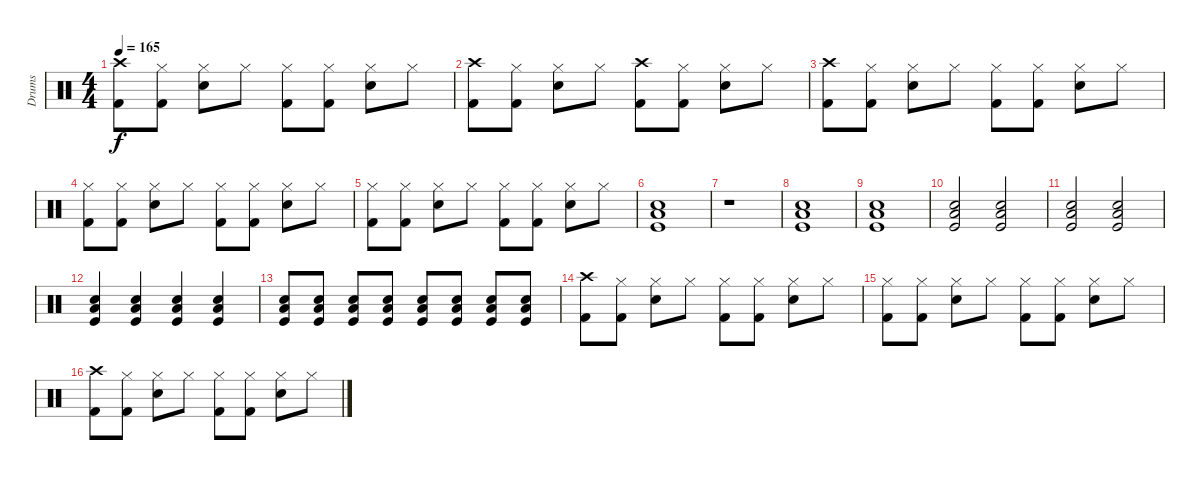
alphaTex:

\track ("Drums" "Drums") {instrument percussion}
\staff {score}
\articulation defaults
\ts (4 4)
\tempo 165
\clef neutral
\ks c
("Crash high (hit)" "Kick (hit) 2").8{dy f} ("Hi-Hat (closed)" "Kick (hit) 2").8 ("Hi-Hat (closed)" "Snare (hit) 2").8 "Hi-Hat (closed)".8 ("Hi-Hat (closed)" "Kick (hit) 2").8 ("Hi-Hat (closed)" "Kick (hit) 2").8 ("Hi-Hat (closed)" "Snare (hit) 2").8 "Hi-Hat (closed)".8 |
("Crash high (hit)" "Kick (hit) 2").8 ("Hi-Hat (closed)" "Kick (hit) 2").8 ("Hi-Hat (closed)" "Snare (hit) 2").8 "Hi-Hat (closed)".8 ("Crash high (hit)" "Kick (hit) 2").8 ("Hi-Hat (closed)" "Kick (hit) 2").8 ("Hi-Hat (closed)" "Snare (hit) 2").8 "Hi-Hat (closed)".8 |
("Crash high (hit)" "Kick (hit) 2").8 ("Hi-Hat (closed)" "Kick (hit) 2").8 ("Hi-Hat (closed)" "Snare (hit) 2").8 "Hi-Hat (closed)".8 ("Hi-Hat (closed)" "Kick (hit) 2").8 ("Hi-Hat (closed)" "Kick (hit) 2").8 ("Hi-Hat (closed)" "Snare (hit) 2").8 "Hi-Hat (closed)".8 |
("Hi-Hat (closed)" "Kick (hit) 2").8 ("Hi-Hat (closed)" "Kick (hit) 2").8 ("Hi-Hat (closed)" "Snare (hit) 2").8 "Hi-Hat (closed)".8 ("Hi-Hat (closed)" "Kick (hit) 2").8 ("Hi-Hat (closed)" "Kick (hit) 2").8 ("Hi-Hat (closed)" "Snare (hit) 2").8 "Hi-Hat (closed)".8 |
("Hi-Hat (closed)" "Kick (hit) 2").8 ("Hi-Hat (closed)" "Kick (hit) 2").8 ("Hi-Hat (closed)" "Snare (hit) 2").8 "Hi-Hat (closed)".8 ("Hi-Hat (closed)" "Kick (hit) 2").8 ("Hi-Hat (closed)" "Kick (hit) 2").8 ("Hi-Hat (closed)" "Snare (hit) 2").8 "Hi-Hat (closed)".8 |
("Snare (hit) 2" "Low Floor Tom (hit)" "Kick (hit)").1 |
r.1 |
("Snare (hit) 2" "Low Floor Tom (hit)" "Kick (hit)").1 |
("Snare (hit) 2" "Low Floor Tom (hit)" "Kick (hit)").1 |
("Snare (hit) 2" "Low Floor Tom (hit)" "Kick (hit)").2 ("Snare (hit) 2" "Low Floor Tom (hit)" "Kick (hit)").2 |
("Snare (hit) 2" "Low Floor Tom (hit)" "Kick (hit)").2 ("Snare (hit) 2" "Low Floor Tom (hit)" "Kick (hit)").2 |
("Snare (hit) 2" "Low Floor Tom (hit)" "Kick (hit)").4 ("Snare (hit) 2" "Low Floor Tom (hit)" "Kick (hit)").4 ("Snare (hit) 2" "Low Floor Tom (hit)" "Kick (hit)").4 ("Snare (hit) 2" "Low Floor Tom (hit)" "Kick (hit)").4 |
("Snare (hit) 2" "Low Floor Tom (hit)" "Kick (hit)").8 ("Snare (hit) 2" "Low Floor Tom (hit)" "Kick (hit)").8 ("Snare (hit) 2" "Low Floor Tom (hit)" "Kick (hit)").8 ("Snare (hit) 2" "Low Floor Tom (hit)" "Kick (hit)").8 ("Snare (hit) 2" "Low Floor Tom (hit)" "Kick (hit)").8 ("Snare (hit) 2" "Low Floor Tom (hit)" "Kick (hit)").8 ("Snare (hit) 2" "Low Floor Tom (hit)" "Kick (hit)").8 ("Snare (hit) 2" "Low Floor Tom (hit)" "Kick (hit)").8 |
("Crash high (hit)" "Kick (hit) 2").8 ("Hi-Hat (closed)" "Kick (hit) 2").8 ("Hi-Hat (closed)" "Snare (hit) 2").8 "Hi-Hat (closed)".8 ("Hi-Hat (closed)" "Kick (hit) 2").8 ("Hi-Hat (closed)" "Kick (hit) 2").8 ("Hi-Hat (closed)" "Snare (hit) 2").8 "Hi-Hat (closed)".8 |
("Hi-Hat (closed)" "Kick (hit) 2").8 ("Hi-Hat (closed)" "Kick (hit) 2").8 ("Hi-Hat (closed)" "Snare (hit) 2").8 "Hi-Hat (closed)".8 ("Hi-Hat (closed)" "Kick (hit) 2").8 ("Hi-Hat (closed)" "Kick (hit) 2").8 ("Hi-Hat (closed)" "Snare (hit) 2").8 "Hi-Hat (closed)".8 |
("Crash high (hit)" "Kick (hit) 2").8 ("Hi-Hat (closed)" "Kick (hit) 2").8 ("Hi-Hat (closed)" "Snare (hit) 2").8 "Hi-Hat (closed)".8 ("Hi-Hat (closed)" "Kick (hit) 2").8 ("Hi-Hat (closed)" "Kick (hit) 2").8 ("Hi-Hat (closed)" "Snare (hit) 2").8 "Hi-Hat (closed)".8
